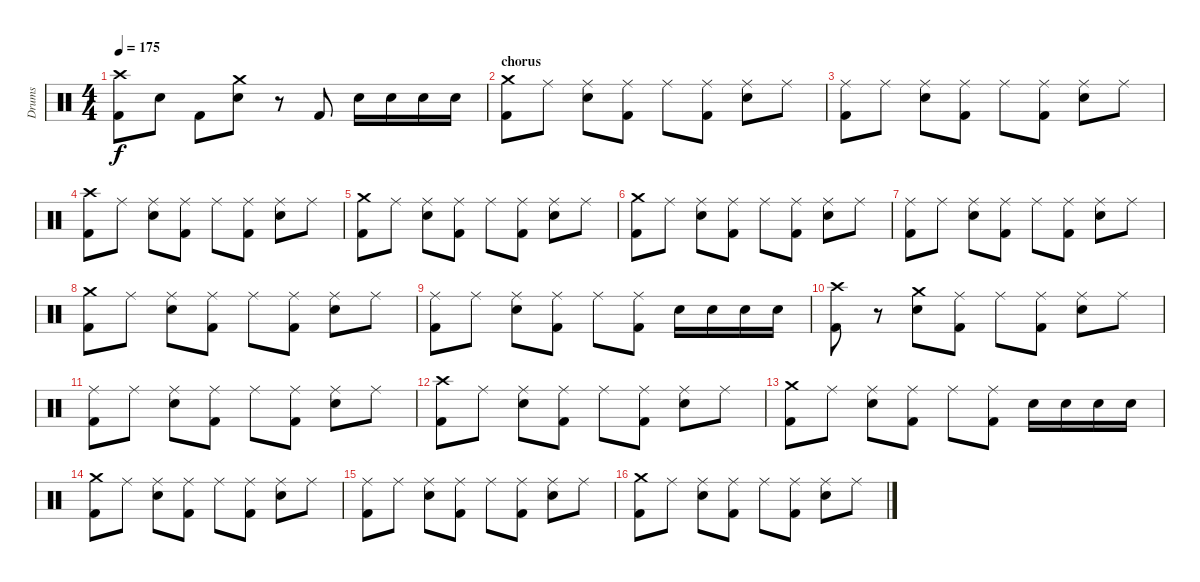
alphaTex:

\track ("Drums" "Drums") {instrument percussion}
\staff {score}
\articulation defaults
\ts (4 4)
\tempo 175
\clef neutral
\ks c
("Crash high (hit)" "Kick (hit) 2").8{dy f} "Snare (hit) 2".8 "Kick (hit) 2".8 ("Crash medium (hit)" "Snare (hit) 2").8 r.8 "Kick (hit) 2".8 "Snare (hit) 2".16 "Snare (hit) 2".16 "Snare (hit) 2".16 "Snare (hit) 2".16 |
\section ("" "chorus")
("Crash medium (hit)" "Kick (hit) 2").8 "Ride (middle)".8 ("Ride (middle)" "Snare (hit) 2").8 ("Ride (middle)" "Kick (hit) 2").8 "Ride (middle)".8 ("Ride (middle)" "Kick (hit) 2").8 ("Ride (middle)" "Snare (hit) 2").8 "Ride (middle)".8 |
("Ride (middle)" "Kick (hit) 2").8 "Ride (middle)".8 ("Ride (middle)" "Snare (hit) 2").8 ("Ride (middle)" "Kick (hit) 2").8 "Ride (middle)".8 ("Ride (middle)" "Kick (hit) 2").8 ("Ride (middle)" "Snare (hit) 2").8 "Ride (middle)".8 |
("Crash high (hit)" "Kick (hit) 2").8 "Ride (middle)".8 ("Ride (middle)" "Snare (hit) 2").8 ("Ride (middle)" "Kick (hit) 2").8 "Ride (middle)".8 ("Ride (middle)" "Kick (hit) 2").8 ("Ride (middle)" "Snare (hit) 2").8 "Ride (middle)".8 |
("Crash medium (hit)" "Kick (hit) 2").8 "Ride (middle)".8 ("Ride (middle)" "Snare (hit) 2").8 ("Ride (middle)" "Kick (hit) 2").8 "Ride (middle)".8 ("Ride (middle)" "Kick (hit) 2").8 ("Ride (middle)" "Snare (hit) 2").8 "Ride (middle)".8 |
("Crash medium (hit)" "Kick (hit) 2").8 "Ride (middle)".8 ("Ride (middle)" "Snare (hit) 2").8 ("Ride (middle)" "Kick (hit) 2").8 "Ride (middle)".8 ("Ride (middle)" "Kick (hit) 2").8 ("Ride (middle)" "Snare (hit) 2").8 "Ride (middle)".8 |
("Ride (middle)" "Kick (hit) 2").8 "Ride (middle)".8 ("Ride (middle)" "Snare (hit) 2").8 ("Ride (middle)" "Kick (hit) 2").8 "Ride (middle)".8 ("Ride (middle)" "Kick (hit) 2").8 ("Ride (middle)" "Snare (hit) 2").8 "Ride (middle)".8 |
("Crash medium (hit)" "Kick (hit) 2").8 "Ride (middle)".8 ("Ride (middle)" "Snare (hit) 2").8 ("Ride (middle)" "Kick (hit) 2").8 "Ride (middle)".8 ("Ride (middle)" "Kick (hit) 2").8 ("Ride (middle)" "Snare (hit) 2").8 "Ride (middle)".8 |
("Ride (middle)" "Kick (hit) 2").8 "Ride (middle)".8 ("Ride (middle)" "Snare (hit) 2").8 ("Ride (middle)" "Kick (hit) 2").8 "Ride (middle)".8 ("Ride (middle)" "Kick (hit) 2").8 "Snare (hit) 2".16 "Snare (hit) 2".16 "Snare (hit) 2".16 "Snare (hit) 2".16 |
("Crash high (hit)" "Kick (hit) 2").8 r.8 ("Crash medium (hit)" "Snare (hit) 2").8 ("Ride (middle)" "Kick (hit) 2").8 "Ride (middle)".8 ("Ride (middle)" "Kick (hit) 2").8 ("Ride (middle)" "Snare (hit) 2").8 "Ride (middle)".8 |
("Ride (middle)" "Kick (hit) 2").8 "Ride (middle)".8 ("Ride (middle)" "Snare (hit) 2").8 ("Ride (middle)" "Kick (hit) 2").8 "Ride (middle)".8 ("Ride (middle)" "Kick (hit) 2").8 ("Ride (middle)" "Snare (hit) 2").8 "Ride (middle)".8 |
("Crash high (hit)" "Kick (hit) 2").8 "Ride (middle)".8 ("Ride (middle)" "Snare (hit) 2").8 ("Ride (middle)" "Kick (hit) 2").8 "Ride (middle)".8 ("Ride (middle)" "Kick (hit) 2").8 ("Ride (middle)" "Snare (hit) 2").8 "Ride (middle)".8 |
("Crash medium (hit)" "Kick (hit) 2").8 "Ride (middle)".8 ("Ride (middle)" "Snare (hit) 2").8 ("Ride (middle)" "Kick (hit) 2").8 "Ride (middle)".8 ("Ride (middle)" "Kick (hit) 2").8 "Snare (hit) 2".16 "Snare (hit) 2".16 "Snare (hit) 2".16 "Snare (hit) 2".16 |
("Crash medium (hit)" "Kick (hit) 2").8 "Ride (middle)".8 ("Ride (middle)" "Snare (hit) 2").8 ("Ride (middle)" "Kick (hit) 2").8 "Ride (middle)".8 ("Ride (middle)" "Kick (hit) 2").8 ("Ride (middle)" "Snare (hit) 2").8 "Ride (middle)".8 |
("Ride (middle)" "Kick (hit) 2").8 "Ride (middle)".8 ("Ride (middle)" "Snare (hit) 2").8 ("Ride (middle)" "Kick (hit) 2").8 "Ride (middle)".8 ("Ride (middle)" "Kick (hit) 2").8 ("Ride (middle)" "Snare (hit) 2").8 "Ride (middle)".8 |
("Crash medium (hit)" "Kick (hit) 2").8 "Ride (middle)".8 ("Ride (middle)" "Snare (hit) 2").8 ("Ride (middle)" "Kick (hit) 2").8 "Ride (middle)".8 ("Ride (middle)" "Kick (hit) 2").8 ("Ride (middle)" "Snare (hit) 2").8 "Ride (middle)".8
